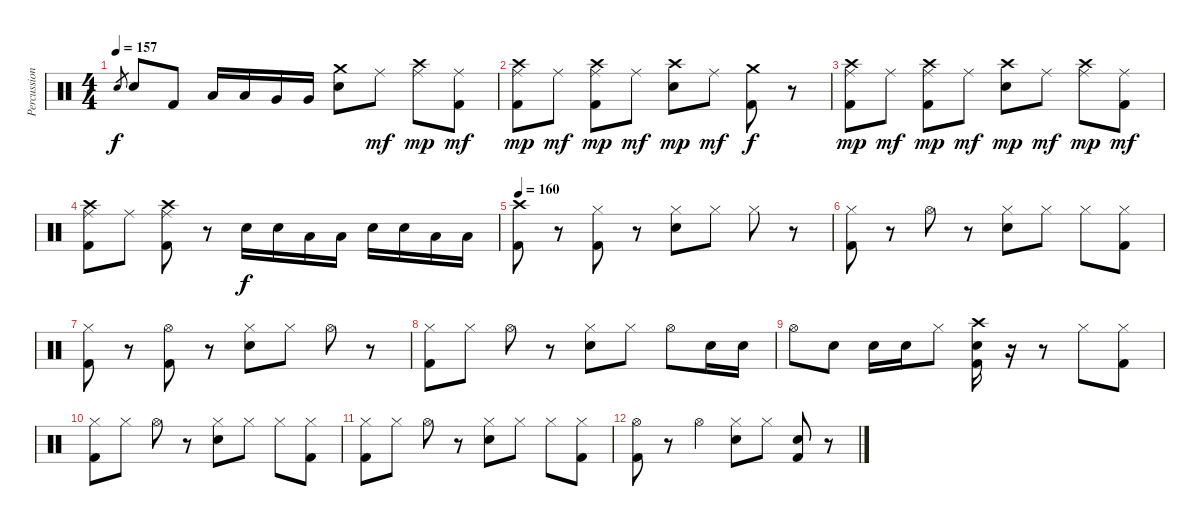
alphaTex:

\track ("Percussion" "Percussion") {instrument percussion}
\staff {score}
\articulation defaults
\ts (4 4)
\tempo 157
\clef neutral
\ks c "Electric Snare (hit)".8{gr dy f} "Electric Snare (hit)".8 "Kick (hit) 2".8 "Low Tom (hit)".16 "Low Tom (hit)".16 "Very Low Tom (hit)".16 "Very Low Tom (hit)".16
("Electric Snare (hit)" "Crash medium (hit)").8 "Ride (middle)".8{dy mf} ("Ride (middle)" "Crash high (hit)").8{dy mp} ("Ride (middle)" "Kick (hit) 2").8{dy mf} |
("Ride (middle)" "Kick (hit) 2" "Crash high (hit)").8{dy mp} "Ride (middle)".8{dy mf} ("Ride (middle)" "Kick (hit) 2" "Crash high (hit)").8{dy mp} "Ride (middle)".8{dy mf} ("Electric Snare (hit)" "Crash high (hit)").8{dy mp} "Ride (middle)".8{dy mf} ("Crash medium (hit)" "Kick (hit) 2").8{dy f} r.8 |
("Ride (middle)" "Kick (hit) 2" "Crash high (hit)").8{dy mp} "Ride (middle)".8{dy mf} ("Ride (middle)" "Kick (hit) 2" "Crash high (hit)").8{dy mp} "Ride (middle)".8{dy mf} ("Electric Snare (hit)" "Crash high (hit)").8{dy mp} "Ride (middle)".8{dy mf} ("Ride (middle)" "Crash high (hit)").8{dy mp} ("Ride (middle)" "Kick (hit) 2").8{dy mf} |
("Ride (middle)" "Kick (hit) 2" "Crash high (hit)").8 "Ride (middle)".8 ("Ride (middle)" "Kick (hit) 2" "Crash high (hit)").8 r.8 "Electric Snare (hit)".16{dy f} "Electric Snare (hit)".16 "Low Tom (hit)".16 "Low Tom (hit)".16 "Electric Snare (hit)".16 "Electric Snare (hit)".16 "Low Tom (hit)".16 "Low Tom (hit)".16 |
\tempo 160
("Crash high (hit)" "Kick (hit) 2").8 r.8 ("Hi-Hat (closed)" "Kick (hit) 2").8 r.8 ("Hi-Hat (closed)" "Electric Snare (hit)").8 "Hi-Hat (closed)".8 "Hi-Hat (closed)".8 r.8 |
("Hi-Hat (closed)" "Kick (hit) 2").8 r.8 "Hi-Hat (open)".8 r.8 ("Hi-Hat (closed)" "Electric Snare (hit)").8 "Hi-Hat (closed)".8 "Hi-Hat (closed)".8 ("Hi-Hat (closed)" "Kick (hit) 2").8 |
("Hi-Hat (closed)" "Kick (hit) 2").8 r.8 ("Hi-Hat (open)" "Kick (hit) 2").8 r.8 ("Hi-Hat (closed)" "Electric Snare (hit)").8 "Hi-Hat (closed)".8 "Hi-Hat (open)".8 r.8 |
("Hi-Hat (closed)" "Kick (hit) 2").8 "Hi-Hat (closed)".8 "Hi-Hat (open)".8 r.8 ("Hi-Hat (closed)" "Electric Snare (hit)").8 "Hi-Hat (closed)".8 "Hi-Hat (open)".8 "Electric Snare (hit)".16 "Electric Snare (hit)".16 |
"Hi-Hat (open)".8 "Electric Snare (hit)".8 "Electric Snare (hit)".16 "Electric Snare (hit)".16 "Hi-Hat (closed)".8 ("Crash high (hit)" "Kick (hit) 2" "Electric Snare (hit)").16 r.16 r.8 "Hi-Hat (closed)".8 ("Hi-Hat (closed)" "Kick (hit) 2").8 |
("Hi-Hat (closed)" "Kick (hit) 2").8 "Hi-Hat (closed)".8 "Hi-Hat (open)".8 r.8 ("Hi-Hat (closed)" "Electric Snare (hit)").8 "Hi-Hat (closed)".8 "Hi-Hat (closed)".8 ("Hi-Hat (closed)" "Kick (hit) 2").8 |
("Hi-Hat (closed)" "Kick (hit) 2").8 "Hi-Hat (closed)".8 "Hi-Hat (open)".8 r.8 ("Hi-Hat (closed)" "Electric Snare (hit)").8 "Hi-Hat (closed)".8 "Hi-Hat (closed)".8 ("Hi-Hat (closed)" "Kick (hit) 2").8 |
("Hi-Hat (open)" "Kick (hit) 2").8 r.8 "Hi-Hat (open)".4 ("Hi-Hat (closed)" "Electric Snare (hit)").8 "Hi-Hat (closed)".8 ("Kick (hit) 2" "Electric Snare (hit)").8 r.8
